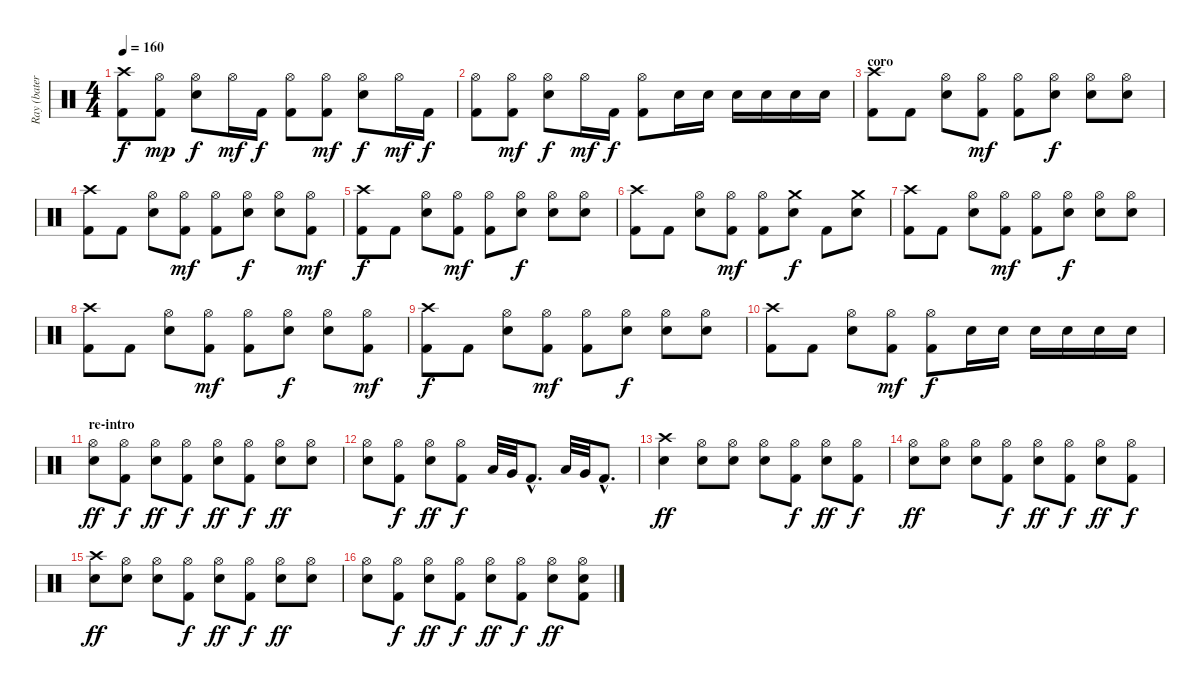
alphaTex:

\track ("Ray (batería)" "Ray (bater") {instrument percussion}
\staff {score}
\articulation defaults
\ts (4 4)
\tempo 160
\clef neutral
\ks c
("Crash high (hit)" "Kick (hit) 2").8{dy f} ("Hi-Hat (open)" "Kick (hit) 2").8{dy mp} ("Hi-Hat (open)" "Snare (hit) 2").8{dy f} "Hi-Hat (open)".16{dy mf} "Kick (hit) 2".16{dy f} ("Hi-Hat (open)" "Kick (hit) 2").8 ("Hi-Hat (open)" "Kick (hit) 2").8{dy mf} ("Hi-Hat (open)" "Snare (hit) 2").8{dy f} "Hi-Hat (open)".16{dy mf} "Kick (hit) 2".16{dy f} |
("Hi-Hat (open)" "Kick (hit) 2").8 ("Hi-Hat (open)" "Kick (hit) 2").8{dy mf} ("Hi-Hat (open)" "Snare (hit) 2").8{dy f} "Hi-Hat (open)".16{dy mf} "Kick (hit) 2".16{dy f} ("Hi-Hat (open)" "Kick (hit) 2").8 "Snare (hit) 2".16 "Snare (hit) 2".16 "Snare (hit) 2".16 "Snare (hit) 2".16 "Snare (hit) 2".16 "Snare (hit) 2".16 |
\section ("" "coro")
("Crash high (hit)" "Kick (hit) 2").8 "Kick (hit) 2".8 ("Hi-Hat (open)" "Snare (hit) 2").8 ("Hi-Hat (open)" "Kick (hit) 2").8{dy mf} ("Hi-Hat (open)" "Kick (hit) 2").8 ("Hi-Hat (open)" "Snare (hit) 2").8{dy f} ("Hi-Hat (open)" "Snare (hit) 2").8 ("Hi-Hat (open)" "Snare (hit) 2").8 |
("Crash high (hit)" "Kick (hit) 2").8 "Kick (hit) 2".8 ("Hi-Hat (open)" "Snare (hit) 2").8 ("Hi-Hat (open)" "Kick (hit) 2").8{dy mf} ("Hi-Hat (open)" "Kick (hit) 2").8 ("Hi-Hat (open)" "Snare (hit) 2").8{dy f} ("Hi-Hat (open)" "Snare (hit) 2").8 ("Hi-Hat (open)" "Kick (hit) 2").8{dy mf} |
("Crash high (hit)" "Kick (hit) 2").8{dy f} "Kick (hit) 2".8 ("Hi-Hat (open)" "Snare (hit) 2").8 ("Hi-Hat (open)" "Kick (hit) 2").8{dy mf} ("Hi-Hat (open)" "Kick (hit) 2").8 ("Hi-Hat (open)" "Snare (hit) 2").8{dy f} ("Hi-Hat (open)" "Snare (hit) 2").8 ("Hi-Hat (open)" "Snare (hit) 2").8 |
("Crash high (hit)" "Kick (hit) 2").8 "Kick (hit) 2".8 ("Hi-Hat (open)" "Snare (hit) 2").8 ("Hi-Hat (open)" "Kick (hit) 2").8{dy mf} ("Hi-Hat (open)" "Kick (hit) 2").8 ("Crash medium (hit)" "Snare (hit) 2").8{dy f} "Kick (hit) 2".8 ("Crash medium (hit)" "Snare (hit) 2").8 |
("Crash high (hit)" "Kick (hit) 2").8 "Kick (hit) 2".8 ("Hi-Hat (open)" "Snare (hit) 2").8 ("Hi-Hat (open)" "Kick (hit) 2").8{dy mf} ("Hi-Hat (open)" "Kick (hit) 2").8 ("Hi-Hat (open)" "Snare (hit) 2").8{dy f} ("Hi-Hat (open)" "Snare (hit) 2").8 ("Hi-Hat (open)" "Snare (hit) 2").8 |
("Crash high (hit)" "Kick (hit) 2").8 "Kick (hit) 2".8 ("Hi-Hat (open)" "Snare (hit) 2").8 ("Hi-Hat (open)" "Kick (hit) 2").8{dy mf} ("Hi-Hat (open)" "Kick (hit) 2").8 ("Hi-Hat (open)" "Snare (hit) 2").8{dy f} ("Hi-Hat (open)" "Snare (hit) 2").8 ("Hi-Hat (open)" "Kick (hit) 2").8{dy mf} |
("Crash high (hit)" "Kick (hit) 2").8{dy f} "Kick (hit) 2".8 ("Hi-Hat (open)" "Snare (hit) 2").8 ("Hi-Hat (open)" "Kick (hit) 2").8{dy mf} ("Hi-Hat (open)" "Kick (hit) 2").8 ("Hi-Hat (open)" "Snare (hit) 2").8{dy f} ("Hi-Hat (open)" "Snare (hit) 2").8 ("Hi-Hat (open)" "Snare (hit) 2").8 |
("Crash high (hit)" "Kick (hit) 2").8 "Kick (hit) 2".8 ("Hi-Hat (open)" "Snare (hit) 2").8 ("Hi-Hat (open)" "Kick (hit) 2").8{dy mf} ("Hi-Hat (open)" "Kick (hit) 2").8{dy f} "Snare (hit) 2".16 "Snare (hit) 2".16 "Snare (hit) 2".16 "Snare (hit) 2".16 "Snare (hit) 2".16 "Snare (hit) 2".16 |
\section ("" "re-intro")
("Hi-Hat (open)" "Snare (hit) 2").8{dy ff} ("Hi-Hat (open)" "Kick (hit) 2").8{dy f} ("Hi-Hat (open)" "Snare (hit) 2").8{dy ff} ("Hi-Hat (open)" "Kick (hit) 2").8{dy f} ("Hi-Hat (open)" "Snare (hit) 2").8{dy ff} ("Hi-Hat (open)" "Kick (hit) 2").8{dy f} ("Hi-Hat (open)" "Snare (hit) 2").8{dy ff} ("Hi-Hat (open)" "Snare (hit) 2").8 |
("Hi-Hat (open)" "Snare (hit) 2").8 ("Hi-Hat (open)" "Kick (hit) 2").8{dy f} ("Hi-Hat (open)" "Snare (hit) 2").8{dy ff} ("Hi-Hat (open)" "Kick (hit) 2").8{dy f} "Low Floor Tom (hit)".32 "Very Low Tom (hit)".32 "Kick (hit) 2"{hac}.8{d} "Low Floor Tom (hit)".32 "Very Low Tom (hit)".32 "Kick (hit) 2"{hac}.8{d} |
("Crash high (hit)" "Snare (hit) 2").4{dy ff} ("Hi-Hat (open)" "Snare (hit) 2").8 ("Hi-Hat (open)" "Snare (hit) 2").8 ("Hi-Hat (open)" "Snare (hit) 2").8 ("Hi-Hat (open)" "Kick (hit) 2").8{dy f} ("Hi-Hat (open)" "Snare (hit) 2").8{dy ff} ("Hi-Hat (open)" "Kick (hit) 2").8{dy f} |
("Hi-Hat (open)" "Snare (hit) 2").8{dy ff} ("Hi-Hat (open)" "Snare (hit) 2").8 ("Hi-Hat (open)" "Snare (hit) 2").8 ("Hi-Hat (open)" "Kick (hit) 2").8{dy f} ("Hi-Hat (open)" "Snare (hit) 2").8{dy ff} ("Hi-Hat (open)" "Kick (hit) 2").8{dy f} ("Hi-Hat (open)" "Snare (hit) 2").8{dy ff} ("Hi-Hat (open)" "Kick (hit) 2").8{dy f} |
("Crash high (hit)" "Snare (hit) 2").8{dy ff} ("Hi-Hat (open)" "Snare (hit) 2").8 ("Hi-Hat (open)" "Snare (hit) 2").8 ("Hi-Hat (open)" "Kick (hit) 2").8{dy f} ("Hi-Hat (open)" "Snare (hit) 2").8{dy ff} ("Hi-Hat (open)" "Kick (hit) 2").8{dy f} ("Hi-Hat (open)" "Snare (hit) 2").8{dy ff} ("Hi-Hat (open)" "Snare (hit) 2").8 |
("Hi-Hat (open)" "Snare (hit) 2").8 ("Hi-Hat (open)" "Kick (hit) 2").8{dy f} ("Hi-Hat (open)" "Snare (hit) 2").8{dy ff} ("Hi-Hat (open)" "Kick (hit) 2").8{dy f} ("Hi-Hat (open)" "Snare (hit) 2").8{dy ff} ("Hi-Hat (open)" "Kick (hit) 2").8{dy f} ("Hi-Hat (open)" "Snare (hit) 2").8{dy ff} ("Hi-Hat (open)" "Snare (hit) 2" "Kick (hit) 2").8
